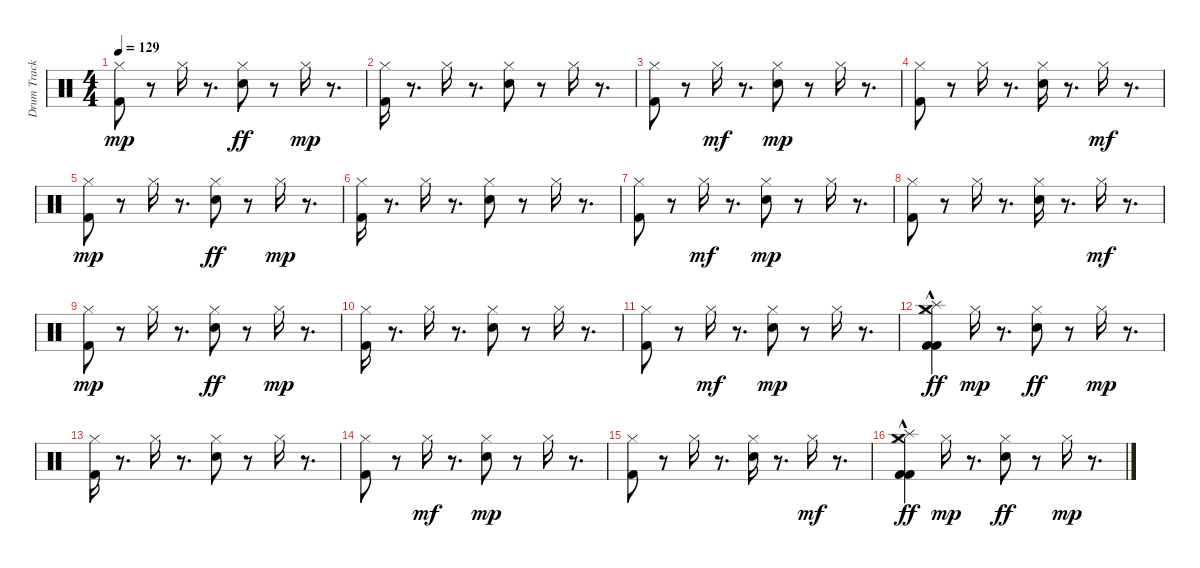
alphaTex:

\track ("Drum Track 1" "Drum Track") {instrument percussion}
\staff {score}
\articulation defaults
\ts (4 4)
\tempo 129
\clef neutral
\ks c
("Kick (hit) 2" "Hi-Hat (closed)").8{dy mp} r.8 "Hi-Hat (closed)".16 r.8{d} ("Hi-Hat (closed)" "Snare (hit) 2").8{dy ff} r.8 "Hi-Hat (closed)".16{dy mp} r.8{d} |
("Kick (hit) 2" "Hi-Hat (closed)").16 r.8{d} "Hi-Hat (closed)".16 r.8{d} ("Snare (hit) 2" "Hi-Hat (closed)").8 r.8 "Hi-Hat (closed)".16 r.8{d} |
("Kick (hit) 2" "Hi-Hat (closed)").8 r.8 "Hi-Hat (closed)".16{dy mf} r.8{d} ("Hi-Hat (closed)" "Snare (hit) 2").8{dy mp} r.8 "Hi-Hat (closed)".16 r.8{d} |
("Hi-Hat (closed)" "Kick (hit) 2").8 r.8 "Hi-Hat (closed)".16 r.8{d} ("Hi-Hat (closed)" "Snare (hit) 2").16 r.8{d} "Hi-Hat (closed)".16{dy mf} r.8{d} |
("Kick (hit) 2" "Hi-Hat (closed)").8{dy mp} r.8 "Hi-Hat (closed)".16 r.8{d} ("Hi-Hat (closed)" "Snare (hit) 2").8{dy ff} r.8 "Hi-Hat (closed)".16{dy mp} r.8{d} |
("Kick (hit) 2" "Hi-Hat (closed)").16 r.8{d} "Hi-Hat (closed)".16 r.8{d} ("Snare (hit) 2" "Hi-Hat (closed)").8 r.8 "Hi-Hat (closed)".16 r.8{d} |
("Kick (hit) 2" "Hi-Hat (closed)").8 r.8 "Hi-Hat (closed)".16{dy mf} r.8{d} ("Hi-Hat (closed)" "Snare (hit) 2").8{dy mp} r.8 "Hi-Hat (closed)".16 r.8{d} |
("Hi-Hat (closed)" "Kick (hit) 2").8 r.8 "Hi-Hat (closed)".16 r.8{d} ("Hi-Hat (closed)" "Snare (hit) 2").16 r.8{d} "Hi-Hat (closed)".16{dy mf} r.8{d} |
("Kick (hit) 2" "Hi-Hat (closed)").8{dy mp} r.8 "Hi-Hat (closed)".16 r.8{d} ("Hi-Hat (closed)" "Snare (hit) 2").8{dy ff} r.8 "Hi-Hat (closed)".16{dy mp} r.8{d} |
("Kick (hit) 2" "Hi-Hat (closed)").16 r.8{d} "Hi-Hat (closed)".16 r.8{d} ("Snare (hit) 2" "Hi-Hat (closed)").8 r.8 "Hi-Hat (closed)".16 r.8{d} |
("Kick (hit) 2" "Hi-Hat (closed)").8 r.8 "Hi-Hat (closed)".16{dy mf} r.8{d} ("Hi-Hat (closed)" "Snare (hit) 2").8{dy mp} r.8 "Hi-Hat (closed)".16 r.8{d} |
("Kick (hit) 2"{hac} "Hi-Hat (closed)" "Crash medium (hit)"{hac} "Splash (hit)"{hac} "Kick (hit) 2"{hac}).4{dy ff} "Hi-Hat (closed)".16{dy mp} r.8{d} ("Hi-Hat (closed)" "Snare (hit) 2").8{dy ff} r.8 "Hi-Hat (closed)".16{dy mp} r.8{d} |
("Kick (hit) 2" "Hi-Hat (closed)").16 r.8{d} "Hi-Hat (closed)".16 r.8{d} ("Snare (hit) 2" "Hi-Hat (closed)").8 r.8 "Hi-Hat (closed)".16 r.8{d} |
("Kick (hit) 2" "Hi-Hat (closed)").8 r.8 "Hi-Hat (closed)".16{dy mf} r.8{d} ("Hi-Hat (closed)" "Snare (hit) 2").8{dy mp} r.8 "Hi-Hat (closed)".16 r.8{d} |
("Hi-Hat (closed)" "Kick (hit) 2").8 r.8 "Hi-Hat (closed)".16 r.8{d} ("Hi-Hat (closed)" "Snare (hit) 2").16 r.8{d} "Hi-Hat (closed)".16{dy mf} r.8{d} |
("Kick (hit) 2" "Hi-Hat (closed)" "Crash medium (hit)"{hac} "Splash (hit)"{hac} "Kick (hit) 2"{hac}).4{dy ff} "Hi-Hat (closed)".16{dy mp} r.8{d} ("Hi-Hat (closed)" "Snare (hit) 2").8{dy ff} r.8 "Hi-Hat (closed)".16{dy mp} r.8{d}
